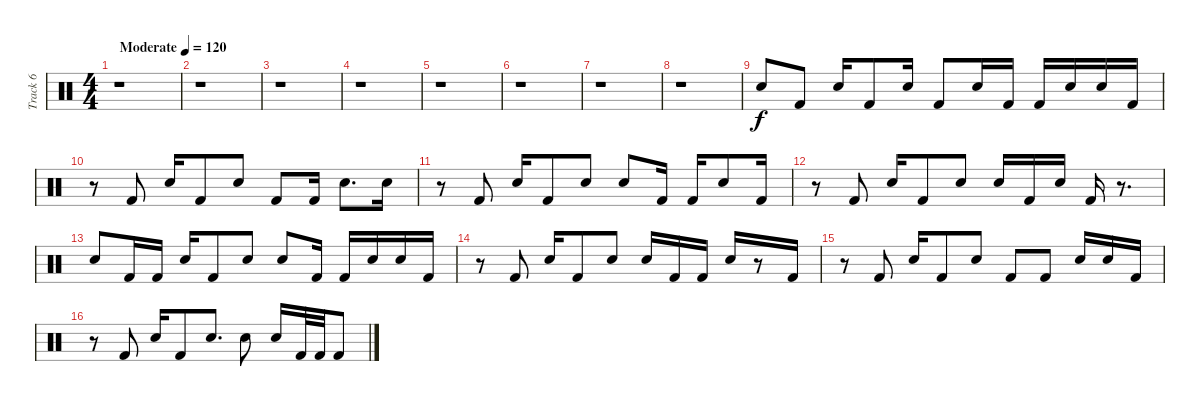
\track ("Track 6" "Track 6") {instrument percussion}
\staff {score}
\articulation defaults
\ts (4 4)
\tempo (120 "Moderate")
\clef neutral
\ks c
r.1{dy f} |
r.1 |
r.1 |
r.1 |
r.1 |
r.1 |
r.1 |
r.1 |
"Electric Snare (hit)".8 "Kick (hit) 2".8 "Electric Snare (hit)".16 "Kick (hit) 2".8 "Electric Snare (hit)".16 "Kick (hit) 2".8 "Electric Snare (hit)".16 "Kick (hit) 2".16 "Kick (hit) 2".16 "Electric Snare (hit)".16 "Electric Snare (hit)".16 "Kick (hit) 2".16 |
r.8 "Kick (hit) 2".8 "Electric Snare (hit)".16 "Kick (hit) 2".8 "Electric Snare (hit)".8 "Kick (hit) 2".8 "Kick (hit) 2".16 "Electric Snare (hit)".8{d} "Electric Snare (hit)".16 |
r.8 "Kick (hit) 2".8 "Electric Snare (hit)".16 "Kick (hit) 2".8 "Electric Snare (hit)".8 "Electric Snare (hit)".8 "Kick (hit) 2".16 "Kick (hit) 2".16 "Electric Snare (hit)".8 "Kick (hit) 2".16 |
r.8 "Kick (hit) 2".8 "Electric Snare (hit)".16 "Kick (hit) 2".8 "Electric Snare (hit)".8 "Electric Snare (hit)".16 "Kick (hit) 2".16 "Electric Snare (hit)".16 "Kick (hit) 2".16 r.8{d} |
"Electric Snare (hit)".8 "Kick (hit) 2".16 "Kick (hit) 2".16 "Electric Snare (hit)".16 "Kick (hit) 2".8 "Electric Snare (hit)".8 "Electric Snare (hit)".8 "Kick (hit) 2".16 "Kick (hit) 2".16 "Electric Snare (hit)".16 "Electric Snare (hit)".16 "Kick (hit) 2".16 |
r.8 "Kick (hit) 2".8 "Electric Snare (hit)".16 "Kick (hit) 2".8 "Electric Snare (hit)".8 "Electric Snare (hit)".16 "Kick (hit) 2".16 "Kick (hit) 2".16 "Electric Snare (hit)".16 r.8 "Kick (hit) 2".16 |
r.8 "Kick (hit) 2".8 "Electric Snare (hit)".16 "Kick (hit) 2".8 "Electric Snare (hit)".8 "Kick (hit) 2".8 "Kick (hit) 2".8 "Electric Snare (hit)".16 "Electric Snare (hit)".16 "Kick (hit) 2".16 |
r.8 "Kick (hit) 2".8 "Electric Snare (hit)".16 "Kick (hit) 2".8 "Electric Snare (hit)".8{d} "Electric Snare (hit)".8 "Electric Snare (hit)".16 "Kick (hit) 2".32 "Kick (hit) 2".32 "Kick (hit) 2".8
